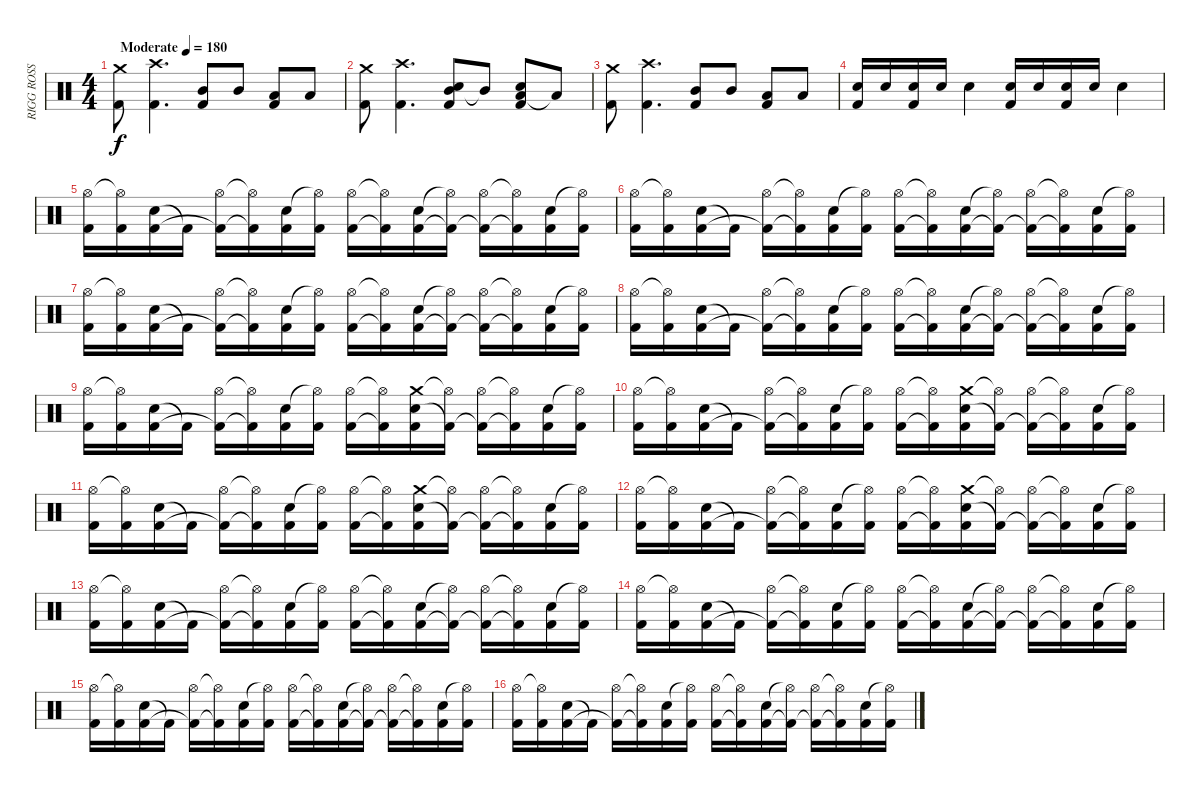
\track ("RIGG ROSS" "RIGG ROSS") {instrument percussion}
\staff {score}
\articulation defaults
\ts (4 4)
\tempo (180 "Moderate")
\clef neutral
\ks c
("Crash medium (hit)" "Kick (hit) 2").8{dy f} ("Crash high (hit)" "Kick (hit) 2").4{d} ("Mid Tom (hit)" "Kick (hit) 2").8 "Mid Tom (hit)".8 ("Low Tom (hit)" "Kick (hit) 2").8 "Low Tom (hit)".8 |
("Crash medium (hit)" "Kick (hit) 2").8 ("Crash high (hit)" "Kick (hit) 2").4{d} ("Mid Tom (hit)" "Electric Snare (hit)" "Kick (hit) 2").8 "Mid Tom (hit)"{t}.8 ("Low Tom (hit)" "Electric Snare (hit)" "Kick (hit) 2").8 "Low Tom (hit)"{t}.8 |
("Crash medium (hit)" "Kick (hit) 2").8 ("Crash high (hit)" "Kick (hit) 2").4{d} ("Mid Tom (hit)" "Kick (hit) 2").8 "Mid Tom (hit)".8 ("Low Tom (hit)" "Kick (hit) 2").8 "Low Tom (hit)".8 |
("Electric Snare (hit)" "Kick (hit) 2").16 "Electric Snare (hit)".16 ("Electric Snare (hit)" "Kick (hit) 2").16 "Electric Snare (hit)".16 "Electric Snare (hit)".4 ("Electric Snare (hit)" "Kick (hit) 2").16 "Electric Snare (hit)".16 ("Electric Snare (hit)" "Kick (hit) 2").16 "Electric Snare (hit)".16 "Electric Snare (hit)".4 |
("Hi-Hat (open)" "Kick (hit) 2").16 ("Hi-Hat (open)"{t} "Kick (hit) 2").16 ("Electric Snare (hit)" "Kick (hit) 2").16 "Kick (hit) 2"{t}.16 ("Hi-Hat (open)" "Kick (hit) 2"{t}).16 ("Hi-Hat (open)"{t} "Kick (hit) 2"{t}).16 ("Electric Snare (hit)" "Kick (hit) 2").16 ("Hi-Hat (open)"{t} "Kick (hit) 2").16 ("Hi-Hat (open)" "Kick (hit) 2").16 ("Hi-Hat (open)"{t} "Kick (hit) 2"{t}).16 ("Electric Snare (hit)" "Kick (hit) 2").16 ("Hi-Hat (open)"{t} "Kick (hit) 2"{t}).16 ("Hi-Hat (open)" "Kick (hit) 2"{t}).16 ("Hi-Hat (open)"{t} "Kick (hit) 2"{t}).16 ("Electric Snare (hit)" "Kick (hit) 2").16 ("Hi-Hat (open)"{t} "Kick (hit) 2").16 |
("Hi-Hat (open)" "Kick (hit) 2").16 ("Hi-Hat (open)"{t} "Kick (hit) 2").16 ("Electric Snare (hit)" "Kick (hit) 2").16 "Kick (hit) 2"{t}.16 ("Hi-Hat (open)" "Kick (hit) 2"{t}).16 ("Hi-Hat (open)"{t} "Kick (hit) 2"{t}).16 ("Electric Snare (hit)" "Kick (hit) 2").16 ("Hi-Hat (open)"{t} "Kick (hit) 2").16 ("Hi-Hat (open)" "Kick (hit) 2").16 ("Hi-Hat (open)"{t} "Kick (hit) 2"{t}).16 ("Electric Snare (hit)" "Kick (hit) 2").16 ("Hi-Hat (open)"{t} "Kick (hit) 2"{t}).16 ("Hi-Hat (open)" "Kick (hit) 2"{t}).16 ("Hi-Hat (open)"{t} "Kick (hit) 2"{t}).16 ("Electric Snare (hit)" "Kick (hit) 2").16 ("Hi-Hat (open)"{t} "Kick (hit) 2").16 |
("Hi-Hat (open)" "Kick (hit) 2").16 ("Hi-Hat (open)"{t} "Kick (hit) 2").16 ("Electric Snare (hit)" "Kick (hit) 2").16 "Kick (hit) 2"{t}.16 ("Hi-Hat (open)" "Kick (hit) 2"{t}).16 ("Hi-Hat (open)"{t} "Kick (hit) 2"{t}).16 ("Electric Snare (hit)" "Kick (hit) 2").16 ("Hi-Hat (open)"{t} "Kick (hit) 2").16 ("Hi-Hat (open)" "Kick (hit) 2").16 ("Hi-Hat (open)"{t} "Kick (hit) 2"{t}).16 ("Electric Snare (hit)" "Kick (hit) 2").16 ("Hi-Hat (open)"{t} "Kick (hit) 2"{t}).16 ("Hi-Hat (open)" "Kick (hit) 2"{t}).16 ("Hi-Hat (open)"{t} "Kick (hit) 2"{t}).16 ("Electric Snare (hit)" "Kick (hit) 2").16 ("Hi-Hat (open)"{t} "Kick (hit) 2").16 |
("Hi-Hat (open)" "Kick (hit) 2").16 ("Hi-Hat (open)"{t} "Kick (hit) 2").16 ("Electric Snare (hit)" "Kick (hit) 2").16 "Kick (hit) 2"{t}.16 ("Hi-Hat (open)" "Kick (hit) 2"{t}).16 ("Hi-Hat (open)"{t} "Kick (hit) 2"{t}).16 ("Electric Snare (hit)" "Kick (hit) 2").16 ("Hi-Hat (open)"{t} "Kick (hit) 2").16 ("Hi-Hat (open)" "Kick (hit) 2").16 ("Hi-Hat (open)"{t} "Kick (hit) 2"{t}).16 ("Electric Snare (hit)" "Kick (hit) 2").16 ("Hi-Hat (open)"{t} "Kick (hit) 2"{t}).16 ("Hi-Hat (open)" "Kick (hit) 2"{t}).16 ("Hi-Hat (open)"{t} "Kick (hit) 2"{t}).16 ("Electric Snare (hit)" "Kick (hit) 2").16 ("Hi-Hat (open)"{t} "Kick (hit) 2").16 |
("Hi-Hat (open)" "Kick (hit) 2").16 ("Hi-Hat (open)"{t} "Kick (hit) 2").16 ("Electric Snare (hit)" "Kick (hit) 2").16 "Kick (hit) 2"{t}.16 ("Hi-Hat (open)" "Kick (hit) 2"{t}).16 ("Hi-Hat (open)"{t} "Kick (hit) 2"{t}).16 ("Electric Snare (hit)" "Kick (hit) 2").16 ("Hi-Hat (open)"{t} "Kick (hit) 2").16 ("Hi-Hat (open)" "Kick (hit) 2").16 ("Hi-Hat (open)"{t} "Kick (hit) 2"{t}).16 ("Crash medium (hit)" "Electric Snare (hit)" "Kick (hit) 2").16 ("Hi-Hat (open)"{t} "Kick (hit) 2"{t}).16 ("Hi-Hat (open)" "Kick (hit) 2"{t}).16 ("Hi-Hat (open)"{t} "Kick (hit) 2"{t}).16 ("Electric Snare (hit)" "Kick (hit) 2").16 ("Hi-Hat (open)"{t} "Kick (hit) 2").16 |
("Hi-Hat (open)" "Kick (hit) 2").16 ("Hi-Hat (open)"{t} "Kick (hit) 2").16 ("Electric Snare (hit)" "Kick (hit) 2").16 "Kick (hit) 2"{t}.16 ("Hi-Hat (open)" "Kick (hit) 2"{t}).16 ("Hi-Hat (open)"{t} "Kick (hit) 2"{t}).16 ("Electric Snare (hit)" "Kick (hit) 2").16 ("Hi-Hat (open)"{t} "Kick (hit) 2").16 ("Hi-Hat (open)" "Kick (hit) 2").16 ("Hi-Hat (open)"{t} "Kick (hit) 2"{t}).16 ("Crash medium (hit)" "Electric Snare (hit)" "Kick (hit) 2").16 ("Hi-Hat (open)"{t} "Kick (hit) 2"{t}).16 ("Hi-Hat (open)" "Kick (hit) 2"{t}).16 ("Hi-Hat (open)"{t} "Kick (hit) 2"{t}).16 ("Electric Snare (hit)" "Kick (hit) 2").16 ("Hi-Hat (open)"{t} "Kick (hit) 2").16 |
("Hi-Hat (open)" "Kick (hit) 2").16 ("Hi-Hat (open)"{t} "Kick (hit) 2").16 ("Electric Snare (hit)" "Kick (hit) 2").16 "Kick (hit) 2"{t}.16 ("Hi-Hat (open)" "Kick (hit) 2"{t}).16 ("Hi-Hat (open)"{t} "Kick (hit) 2"{t}).16 ("Electric Snare (hit)" "Kick (hit) 2").16 ("Hi-Hat (open)"{t} "Kick (hit) 2").16 ("Hi-Hat (open)" "Kick (hit) 2").16 ("Hi-Hat (open)"{t} "Kick (hit) 2"{t}).16 ("Crash medium (hit)" "Electric Snare (hit)" "Kick (hit) 2").16 ("Hi-Hat (open)"{t} "Kick (hit) 2"{t}).16 ("Hi-Hat (open)" "Kick (hit) 2"{t}).16 ("Hi-Hat (open)"{t} "Kick (hit) 2"{t}).16 ("Electric Snare (hit)" "Kick (hit) 2").16 ("Hi-Hat (open)"{t} "Kick (hit) 2").16 |
("Hi-Hat (open)" "Kick (hit) 2").16 ("Hi-Hat (open)"{t} "Kick (hit) 2").16 ("Electric Snare (hit)" "Kick (hit) 2").16 "Kick (hit) 2"{t}.16 ("Hi-Hat (open)" "Kick (hit) 2"{t}).16 ("Hi-Hat (open)"{t} "Kick (hit) 2"{t}).16 ("Electric Snare (hit)" "Kick (hit) 2").16 ("Hi-Hat (open)"{t} "Kick (hit) 2").16 ("Hi-Hat (open)" "Kick (hit) 2").16 ("Hi-Hat (open)"{t} "Kick (hit) 2"{t}).16 ("Crash medium (hit)" "Electric Snare (hit)" "Kick (hit) 2").16 ("Hi-Hat (open)"{t} "Kick (hit) 2"{t}).16 ("Hi-Hat (open)" "Kick (hit) 2"{t}).16 ("Hi-Hat (open)"{t} "Kick (hit) 2"{t}).16 ("Electric Snare (hit)" "Kick (hit) 2").16 ("Hi-Hat (open)"{t} "Kick (hit) 2").16 |
("Hi-Hat (open)" "Kick (hit) 2").16 ("Hi-Hat (open)"{t} "Kick (hit) 2").16 ("Electric Snare (hit)" "Kick (hit) 2").16 "Kick (hit) 2"{t}.16 ("Hi-Hat (open)" "Kick (hit) 2"{t}).16 ("Hi-Hat (open)"{t} "Kick (hit) 2"{t}).16 ("Electric Snare (hit)" "Kick (hit) 2").16 ("Hi-Hat (open)"{t} "Kick (hit) 2").16 ("Hi-Hat (open)" "Kick (hit) 2").16 ("Hi-Hat (open)"{t} "Kick (hit) 2"{t}).16 ("Electric Snare (hit)" "Kick (hit) 2").16 ("Hi-Hat (open)"{t} "Kick (hit) 2"{t}).16 ("Hi-Hat (open)" "Kick (hit) 2"{t}).16 ("Hi-Hat (open)"{t} "Kick (hit) 2"{t}).16 ("Electric Snare (hit)" "Kick (hit) 2").16 ("Hi-Hat (open)"{t} "Kick (hit) 2").16 |
("Hi-Hat (open)" "Kick (hit) 2").16 ("Hi-Hat (open)"{t} "Kick (hit) 2").16 ("Electric Snare (hit)" "Kick (hit) 2").16 "Kick (hit) 2"{t}.16 ("Hi-Hat (open)" "Kick (hit) 2"{t}).16 ("Hi-Hat (open)"{t} "Kick (hit) 2"{t}).16 ("Electric Snare (hit)" "Kick (hit) 2").16 ("Hi-Hat (open)"{t} "Kick (hit) 2").16 ("Hi-Hat (open)" "Kick (hit) 2").16 ("Hi-Hat (open)"{t} "Kick (hit) 2"{t}).16 ("Electric Snare (hit)" "Kick (hit) 2").16 ("Hi-Hat (open)"{t} "Kick (hit) 2"{t}).16 ("Hi-Hat (open)" "Kick (hit) 2"{t}).16 ("Hi-Hat (open)"{t} "Kick (hit) 2"{t}).16 ("Electric Snare (hit)" "Kick (hit) 2").16 ("Hi-Hat (open)"{t} "Kick (hit) 2").16 |
("Hi-Hat (open)" "Kick (hit) 2").16 ("Hi-Hat (open)"{t} "Kick (hit) 2").16 ("Electric Snare (hit)" "Kick (hit) 2").16 "Kick (hit) 2"{t}.16 ("Hi-Hat (open)" "Kick (hit) 2"{t}).16 ("Hi-Hat (open)"{t} "Kick (hit) 2"{t}).16 ("Electric Snare (hit)" "Kick (hit) 2").16 ("Hi-Hat (open)"{t} "Kick (hit) 2").16 ("Hi-Hat (open)" "Kick (hit) 2").16 ("Hi-Hat (open)"{t} "Kick (hit) 2"{t}).16 ("Electric Snare (hit)" "Kick (hit) 2").16 ("Hi-Hat (open)"{t} "Kick (hit) 2"{t}).16 ("Hi-Hat (open)" "Kick (hit) 2"{t}).16 ("Hi-Hat (open)"{t} "Kick (hit) 2"{t}).16 ("Electric Snare (hit)" "Kick (hit) 2").16 ("Hi-Hat (open)"{t} "Kick (hit) 2").16 |
("Hi-Hat (open)" "Kick (hit) 2").16 ("Hi-Hat (open)"{t} "Kick (hit) 2").16 ("Electric Snare (hit)" "Kick (hit) 2").16 "Kick (hit) 2"{t}.16 ("Hi-Hat (open)" "Kick (hit) 2"{t}).16 ("Hi-Hat (open)"{t} "Kick (hit) 2"{t}).16 ("Electric Snare (hit)" "Kick (hit) 2").16 ("Hi-Hat (open)"{t} "Kick (hit) 2").16 ("Hi-Hat (open)" "Kick (hit) 2").16 ("Hi-Hat (open)"{t} "Kick (hit) 2"{t}).16 ("Electric Snare (hit)" "Kick (hit) 2").16 ("Hi-Hat (open)"{t} "Kick (hit) 2"{t}).16 ("Hi-Hat (open)" "Kick (hit) 2"{t}).16 ("Hi-Hat (open)"{t} "Kick (hit) 2"{t}).16 ("Electric Snare (hit)" "Kick (hit) 2").16 ("Hi-Hat (open)"{t} "Kick (hit) 2").16
